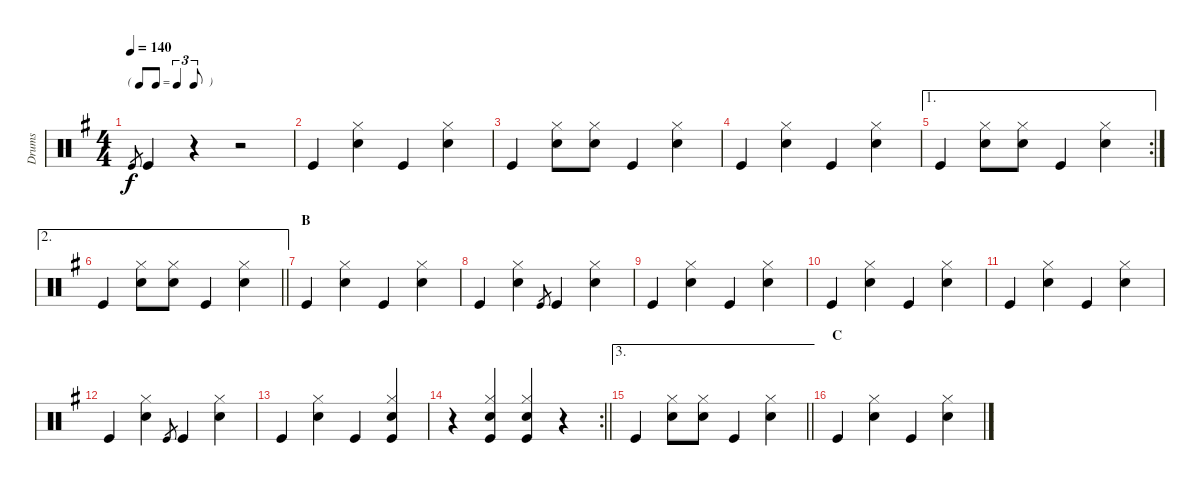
\track ("Drums" "Drums") {instrument percussion}
\staff {score}
\articulation defaults
\ts (4 4)
\tf triplet8th
\tempo 140
\clef neutral
\ks g "Kick (hit)".8{gr dy f} "Kick (hit)".4
r.4 r.2 |
"Kick (hit)".4 ("Hi-Hat (closed)" "Snare (hit) 2").4 "Kick (hit)".4 ("Hi-Hat (closed)" "Snare (hit) 2").4 |
"Kick (hit)".4 ("Hi-Hat (closed)" "Snare (hit) 2").8 ("Hi-Hat (closed)" "Snare (hit) 2").8 "Kick (hit)".4 ("Hi-Hat (closed)" "Snare (hit) 2").4 |
"Kick (hit)".4 ("Hi-Hat (closed)" "Snare (hit) 2").4 "Kick (hit)".4 ("Hi-Hat (closed)" "Snare (hit) 2").4 |
\ae 1
\rc 2 "Kick (hit)".4
("Hi-Hat (closed)" "Snare (hit) 2").8 ("Hi-Hat (closed)" "Snare (hit) 2").8 "Kick (hit)".4 ("Hi-Hat (closed)" "Snare (hit) 2").4 |
\ae 2
\barLineRight lightlight "Kick (hit)".4
("Hi-Hat (closed)" "Snare (hit) 2").8 ("Hi-Hat (closed)" "Snare (hit) 2").8 "Kick (hit)".4 ("Hi-Hat (closed)" "Snare (hit) 2").4 |
\section ("" "B")
"Kick (hit)".4 ("Hi-Hat (closed)" "Snare (hit) 2").4 "Kick (hit)".4 ("Hi-Hat (closed)" "Snare (hit) 2").4 |
"Kick (hit)".4 ("Hi-Hat (closed)" "Snare (hit) 2").4 "Kick (hit)".8{gr} "Kick (hit)".4 ("Hi-Hat (closed)" "Snare (hit) 2").4 |
"Kick (hit)".4 ("Hi-Hat (closed)" "Snare (hit) 2").4 "Kick (hit)".4 ("Hi-Hat (closed)" "Snare (hit) 2").4 |
"Kick (hit)".4 ("Hi-Hat (closed)" "Snare (hit) 2").4 "Kick (hit)".4 ("Hi-Hat (closed)" "Snare (hit) 2").4 |
"Kick (hit)".4 ("Hi-Hat (closed)" "Snare (hit) 2").4 "Kick (hit)".4 ("Hi-Hat (closed)" "Snare (hit) 2").4 |
"Kick (hit)".4 ("Hi-Hat (closed)" "Snare (hit) 2").4 "Kick (hit)".8{gr} "Kick (hit)".4 ("Hi-Hat (closed)" "Snare (hit) 2").4 |
"Kick (hit)".4 ("Hi-Hat (closed)" "Snare (hit) 2").4 "Kick (hit)".4 ("Hi-Hat (closed)" "Snare (hit) 2" "Kick (hit)").4 |
\rc 2
\barLineRight lightlight
r.4 ("Hi-Hat (closed)" "Snare (hit) 2" "Kick (hit)").4 ("Hi-Hat (closed)" "Snare (hit) 2" "Kick (hit)").4 r.4 |
\ae 3
\barLineRight lightlight "Kick (hit)".4
("Hi-Hat (closed)" "Snare (hit) 2").8 ("Hi-Hat (closed)" "Snare (hit) 2").8 "Kick (hit)".4 ("Hi-Hat (closed)" "Snare (hit) 2").4 |
\section ("" "C")
"Kick (hit)".4 ("Hi-Hat (closed)" "Snare (hit) 2").4 "Kick (hit)".4 ("Hi-Hat (closed)" "Snare (hit) 2").4
